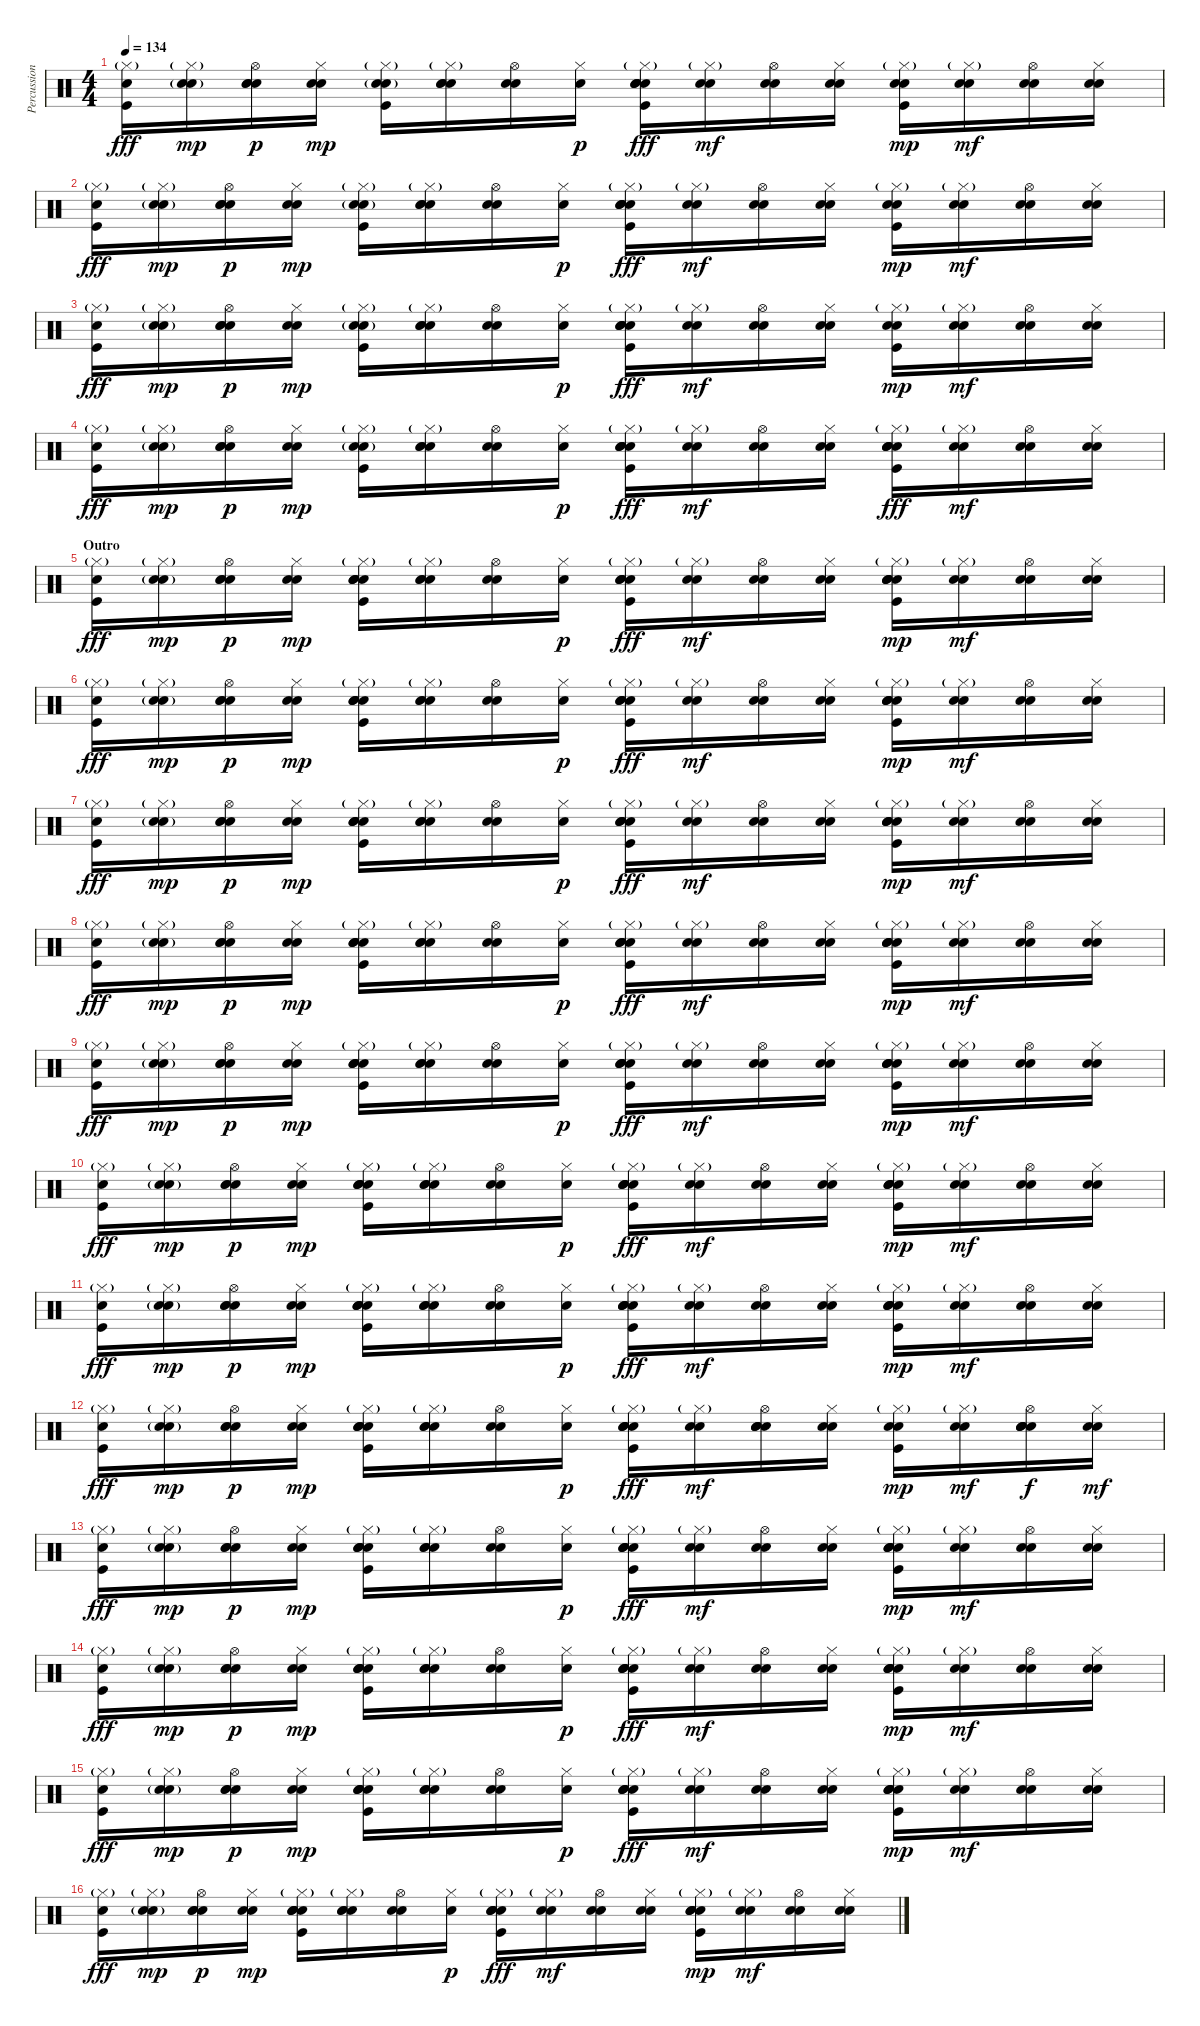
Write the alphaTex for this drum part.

\track ("Percussion" "Percussion") {instrument percussion}
\staff {score}
\articulation defaults
\ts (4 4)
\tempo 134
\clef neutral
\ks c
("Electric Snare (hit)" "Hi-Hat (closed)"{g} "Kick (hit)").16{dy fff} ("Electric Snare (hit)" "Hi-Hat (closed)"{g} "Electric Snare (hit)"{g}).16{dy mp} ("Electric Snare (hit)" "Hi-Hat (open)" "Electric Snare (hit)" "Snare (hit) 2").16{dy p} ("Electric Snare (hit)" "Hi-Hat (closed)" "Snare (hit) 2").16{dy mp} ("Electric Snare (hit)" "Hi-Hat (closed)"{g} "Electric Snare (hit)"{g} "Kick (hit)").16 ("Electric Snare (hit)" "Hi-Hat (closed)"{g} "Electric Snare (hit)" "Snare (hit) 2").16 ("Electric Snare (hit)" "Hi-Hat (open)" "Snare (hit) 2").16 ("Electric Snare (hit)" "Hi-Hat (closed)").16{dy p} ("Electric Snare (hit)" "Hi-Hat (closed)"{g} "Snare (hit) 2" "Snare (hit) 2" "Snare (hit) 2" "Kick (hit)").16{dy fff} ("Electric Snare (hit)" "Hi-Hat (closed)"{g} "Snare (hit) 2").16{dy mf} ("Electric Snare (hit)" "Hi-Hat (open)" "Snare (hit) 2").16 ("Electric Snare (hit)" "Hi-Hat (closed)" "Snare (hit) 2").16 ("Electric Snare (hit)" "Hi-Hat (closed)"{g} "Snare (hit) 2" "Kick (hit)").16{dy mp} ("Electric Snare (hit)" "Hi-Hat (closed)"{g} "Snare (hit) 2").16{dy mf} ("Electric Snare (hit)" "Hi-Hat (open)" "Snare (hit) 2").16 ("Electric Snare (hit)" "Hi-Hat (closed)" "Snare (hit) 2").16 |
("Electric Snare (hit)" "Hi-Hat (closed)"{g} "Kick (hit)").16{dy fff} ("Electric Snare (hit)" "Hi-Hat (closed)"{g} "Electric Snare (hit)"{g}).16{dy mp} ("Electric Snare (hit)" "Hi-Hat (open)" "Electric Snare (hit)" "Snare (hit) 2").16{dy p} ("Electric Snare (hit)" "Hi-Hat (closed)" "Snare (hit) 2").16{dy mp} ("Electric Snare (hit)" "Hi-Hat (closed)"{g} "Electric Snare (hit)"{g} "Kick (hit)").16 ("Electric Snare (hit)" "Hi-Hat (closed)"{g} "Electric Snare (hit)" "Snare (hit) 2").16 ("Electric Snare (hit)" "Hi-Hat (open)" "Snare (hit) 2").16 ("Electric Snare (hit)" "Hi-Hat (closed)").16{dy p} ("Electric Snare (hit)" "Hi-Hat (closed)"{g} "Snare (hit) 2" "Snare (hit) 2" "Snare (hit) 2" "Kick (hit)").16{dy fff} ("Electric Snare (hit)" "Hi-Hat (closed)"{g} "Snare (hit) 2").16{dy mf} ("Electric Snare (hit)" "Hi-Hat (open)" "Snare (hit) 2").16 ("Electric Snare (hit)" "Hi-Hat (closed)" "Snare (hit) 2").16 ("Electric Snare (hit)" "Hi-Hat (closed)"{g} "Snare (hit) 2" "Kick (hit)").16{dy mp} ("Electric Snare (hit)" "Hi-Hat (closed)"{g} "Snare (hit) 2").16{dy mf} ("Electric Snare (hit)" "Hi-Hat (open)" "Snare (hit) 2").16 ("Electric Snare (hit)" "Hi-Hat (closed)" "Snare (hit) 2").16 |
("Electric Snare (hit)" "Hi-Hat (closed)"{g} "Kick (hit)").16{dy fff} ("Electric Snare (hit)" "Hi-Hat (closed)"{g} "Electric Snare (hit)"{g}).16{dy mp} ("Electric Snare (hit)" "Hi-Hat (open)" "Electric Snare (hit)" "Snare (hit) 2").16{dy p} ("Electric Snare (hit)" "Hi-Hat (closed)" "Snare (hit) 2").16{dy mp} ("Electric Snare (hit)" "Hi-Hat (closed)"{g} "Electric Snare (hit)"{g} "Kick (hit)").16 ("Electric Snare (hit)" "Hi-Hat (closed)"{g} "Electric Snare (hit)" "Snare (hit) 2").16 ("Electric Snare (hit)" "Hi-Hat (open)" "Snare (hit) 2").16 ("Electric Snare (hit)" "Hi-Hat (closed)").16{dy p} ("Electric Snare (hit)" "Hi-Hat (closed)"{g} "Snare (hit) 2" "Snare (hit) 2" "Snare (hit) 2" "Kick (hit)").16{dy fff} ("Electric Snare (hit)" "Hi-Hat (closed)"{g} "Snare (hit) 2").16{dy mf} ("Electric Snare (hit)" "Hi-Hat (open)" "Snare (hit) 2").16 ("Electric Snare (hit)" "Hi-Hat (closed)" "Snare (hit) 2").16 ("Electric Snare (hit)" "Hi-Hat (closed)"{g} "Snare (hit) 2" "Kick (hit)").16{dy mp} ("Electric Snare (hit)" "Hi-Hat (closed)"{g} "Snare (hit) 2").16{dy mf} ("Electric Snare (hit)" "Hi-Hat (open)" "Snare (hit) 2").16 ("Electric Snare (hit)" "Hi-Hat (closed)" "Snare (hit) 2").16 |
("Electric Snare (hit)" "Hi-Hat (closed)"{g} "Kick (hit)").16{dy fff} ("Electric Snare (hit)" "Hi-Hat (closed)"{g} "Electric Snare (hit)"{g}).16{dy mp} ("Electric Snare (hit)" "Hi-Hat (open)" "Electric Snare (hit)" "Snare (hit) 2").16{dy p} ("Electric Snare (hit)" "Hi-Hat (closed)" "Snare (hit) 2").16{dy mp} ("Electric Snare (hit)" "Hi-Hat (closed)"{g} "Electric Snare (hit)"{g} "Kick (hit)").16 ("Electric Snare (hit)" "Hi-Hat (closed)"{g} "Electric Snare (hit)" "Snare (hit) 2").16 ("Electric Snare (hit)" "Hi-Hat (open)" "Snare (hit) 2").16 ("Electric Snare (hit)" "Hi-Hat (closed)").16{dy p} ("Electric Snare (hit)" "Hi-Hat (closed)"{g} "Snare (hit) 2" "Snare (hit) 2" "Snare (hit) 2" "Kick (hit)").16{dy fff} ("Electric Snare (hit)" "Hi-Hat (closed)"{g} "Snare (hit) 2").16{dy mf} ("Electric Snare (hit)" "Hi-Hat (open)" "Snare (hit) 2").16 ("Electric Snare (hit)" "Hi-Hat (closed)" "Snare (hit) 2").16 ("Hand Clap (hit)" "Hi-Hat (closed)"{g} "Hand Clap (hit)" "Hand Clap (hit)" "Hand Clap (hit)" "Kick (hit)").16{dy fff} ("Electric Snare (hit)" "Hi-Hat (closed)"{g} "Snare (hit) 2").16{dy mf} ("Electric Snare (hit)" "Hi-Hat (open)" "Snare (hit) 2").16 ("Electric Snare (hit)" "Hi-Hat (closed)" "Snare (hit) 2").16 |
\section ("" "Outro")
("Electric Snare (hit)" "Hi-Hat (closed)"{g} "Kick (hit)").16{dy fff} ("Electric Snare (hit)" "Hi-Hat (closed)"{g} "Electric Snare (hit)"{g}).16{dy mp} ("Electric Snare (hit)" "Hi-Hat (open)" "Electric Snare (hit)" "Snare (hit) 2").16{dy p} ("Electric Snare (hit)" "Hi-Hat (closed)" "Snare (hit) 2").16{dy mp} ("Electric Snare (hit)" "Hi-Hat (closed)"{g} "Hand Clap (hit)" "Hand Clap (hit)" "Hand Clap (hit)" "Kick (hit)").16 ("Electric Snare (hit)" "Hi-Hat (closed)"{g} "Electric Snare (hit)" "Snare (hit) 2").16 ("Electric Snare (hit)" "Hi-Hat (open)" "Snare (hit) 2").16 ("Electric Snare (hit)" "Hi-Hat (closed)").16{dy p} ("Electric Snare (hit)" "Hi-Hat (closed)"{g} "Snare (hit) 2" "Snare (hit) 2" "Snare (hit) 2" "Kick (hit)").16{dy fff} ("Electric Snare (hit)" "Hi-Hat (closed)"{g} "Snare (hit) 2").16{dy mf} ("Electric Snare (hit)" "Hi-Hat (open)" "Snare (hit) 2").16 ("Electric Snare (hit)" "Hi-Hat (closed)" "Snare (hit) 2").16 ("Electric Snare (hit)" "Hi-Hat (closed)"{g} "Hand Clap (hit)" "Hand Clap (hit)" "Hand Clap (hit)" "Kick (hit)").16{dy mp} ("Electric Snare (hit)" "Hi-Hat (closed)"{g} "Snare (hit) 2").16{dy mf} ("Electric Snare (hit)" "Hi-Hat (open)" "Snare (hit) 2").16 ("Electric Snare (hit)" "Hi-Hat (closed)" "Snare (hit) 2").16 |
("Electric Snare (hit)" "Hi-Hat (closed)"{g} "Kick (hit)").16{dy fff} ("Electric Snare (hit)" "Hi-Hat (closed)"{g} "Electric Snare (hit)"{g}).16{dy mp} ("Electric Snare (hit)" "Hi-Hat (open)" "Electric Snare (hit)" "Snare (hit) 2").16{dy p} ("Electric Snare (hit)" "Hi-Hat (closed)" "Snare (hit) 2").16{dy mp} ("Electric Snare (hit)" "Hi-Hat (closed)"{g} "Hand Clap (hit)" "Hand Clap (hit)" "Hand Clap (hit)" "Kick (hit)").16 ("Electric Snare (hit)" "Hi-Hat (closed)"{g} "Electric Snare (hit)" "Snare (hit) 2").16 ("Electric Snare (hit)" "Hi-Hat (open)" "Snare (hit) 2").16 ("Electric Snare (hit)" "Hi-Hat (closed)").16{dy p} ("Electric Snare (hit)" "Hi-Hat (closed)"{g} "Snare (hit) 2" "Snare (hit) 2" "Snare (hit) 2" "Kick (hit)").16{dy fff} ("Electric Snare (hit)" "Hi-Hat (closed)"{g} "Snare (hit) 2").16{dy mf} ("Electric Snare (hit)" "Hi-Hat (open)" "Snare (hit) 2").16 ("Electric Snare (hit)" "Hi-Hat (closed)" "Snare (hit) 2").16 ("Electric Snare (hit)" "Hi-Hat (closed)"{g} "Hand Clap (hit)" "Hand Clap (hit)" "Hand Clap (hit)" "Kick (hit)").16{dy mp} ("Electric Snare (hit)" "Hi-Hat (closed)"{g} "Snare (hit) 2").16{dy mf} ("Electric Snare (hit)" "Hi-Hat (open)" "Snare (hit) 2").16 ("Electric Snare (hit)" "Hi-Hat (closed)" "Snare (hit) 2").16 |
("Electric Snare (hit)" "Hi-Hat (closed)"{g} "Kick (hit)").16{dy fff} ("Electric Snare (hit)" "Hi-Hat (closed)"{g} "Electric Snare (hit)"{g}).16{dy mp} ("Electric Snare (hit)" "Hi-Hat (open)" "Electric Snare (hit)" "Snare (hit) 2").16{dy p} ("Electric Snare (hit)" "Hi-Hat (closed)" "Snare (hit) 2").16{dy mp} ("Electric Snare (hit)" "Hi-Hat (closed)"{g} "Hand Clap (hit)" "Hand Clap (hit)" "Hand Clap (hit)" "Kick (hit)").16 ("Electric Snare (hit)" "Hi-Hat (closed)"{g} "Electric Snare (hit)" "Snare (hit) 2").16 ("Electric Snare (hit)" "Hi-Hat (open)" "Snare (hit) 2").16 ("Electric Snare (hit)" "Hi-Hat (closed)").16{dy p} ("Electric Snare (hit)" "Hi-Hat (closed)"{g} "Snare (hit) 2" "Snare (hit) 2" "Snare (hit) 2" "Kick (hit)").16{dy fff} ("Electric Snare (hit)" "Hi-Hat (closed)"{g} "Snare (hit) 2").16{dy mf} ("Electric Snare (hit)" "Hi-Hat (open)" "Snare (hit) 2").16 ("Electric Snare (hit)" "Hi-Hat (closed)" "Snare (hit) 2").16 ("Electric Snare (hit)" "Hi-Hat (closed)"{g} "Hand Clap (hit)" "Hand Clap (hit)" "Hand Clap (hit)" "Kick (hit)").16{dy mp} ("Electric Snare (hit)" "Hi-Hat (closed)"{g} "Snare (hit) 2").16{dy mf} ("Electric Snare (hit)" "Hi-Hat (open)" "Snare (hit) 2").16 ("Electric Snare (hit)" "Hi-Hat (closed)" "Snare (hit) 2").16 |
("Electric Snare (hit)" "Hi-Hat (closed)"{g} "Kick (hit)").16{dy fff} ("Electric Snare (hit)" "Hi-Hat (closed)"{g} "Electric Snare (hit)"{g}).16{dy mp} ("Electric Snare (hit)" "Hi-Hat (open)" "Electric Snare (hit)" "Snare (hit) 2").16{dy p} ("Electric Snare (hit)" "Hi-Hat (closed)" "Snare (hit) 2").16{dy mp} ("Electric Snare (hit)" "Hi-Hat (closed)"{g} "Hand Clap (hit)" "Hand Clap (hit)" "Hand Clap (hit)" "Kick (hit)").16 ("Electric Snare (hit)" "Hi-Hat (closed)"{g} "Electric Snare (hit)" "Snare (hit) 2").16 ("Electric Snare (hit)" "Hi-Hat (open)" "Snare (hit) 2").16 ("Electric Snare (hit)" "Hi-Hat (closed)").16{dy p} ("Electric Snare (hit)" "Hi-Hat (closed)"{g} "Snare (hit) 2" "Snare (hit) 2" "Snare (hit) 2" "Kick (hit)").16{dy fff} ("Electric Snare (hit)" "Hi-Hat (closed)"{g} "Snare (hit) 2").16{dy mf} ("Electric Snare (hit)" "Hi-Hat (open)" "Snare (hit) 2").16 ("Electric Snare (hit)" "Hi-Hat (closed)" "Snare (hit) 2").16 ("Electric Snare (hit)" "Hi-Hat (closed)"{g} "Hand Clap (hit)" "Hand Clap (hit)" "Hand Clap (hit)" "Kick (hit)").16{dy mp} ("Electric Snare (hit)" "Hi-Hat (closed)"{g} "Snare (hit) 2").16{dy mf} ("Electric Snare (hit)" "Hi-Hat (open)" "Snare (hit) 2").16 ("Electric Snare (hit)" "Hi-Hat (closed)" "Snare (hit) 2").16 |
("Electric Snare (hit)" "Hi-Hat (closed)"{g} "Kick (hit)").16{dy fff} ("Electric Snare (hit)" "Hi-Hat (closed)"{g} "Electric Snare (hit)"{g}).16{dy mp} ("Electric Snare (hit)" "Hi-Hat (open)" "Electric Snare (hit)" "Snare (hit) 2").16{dy p} ("Electric Snare (hit)" "Hi-Hat (closed)" "Snare (hit) 2").16{dy mp} ("Electric Snare (hit)" "Hi-Hat (closed)"{g} "Hand Clap (hit)" "Hand Clap (hit)" "Hand Clap (hit)" "Kick (hit)").16 ("Electric Snare (hit)" "Hi-Hat (closed)"{g} "Electric Snare (hit)" "Snare (hit) 2").16 ("Electric Snare (hit)" "Hi-Hat (open)" "Snare (hit) 2").16 ("Electric Snare (hit)" "Hi-Hat (closed)").16{dy p} ("Electric Snare (hit)" "Hi-Hat (closed)"{g} "Snare (hit) 2" "Snare (hit) 2" "Snare (hit) 2" "Kick (hit)").16{dy fff} ("Electric Snare (hit)" "Hi-Hat (closed)"{g} "Snare (hit) 2").16{dy mf} ("Electric Snare (hit)" "Hi-Hat (open)" "Snare (hit) 2").16 ("Electric Snare (hit)" "Hi-Hat (closed)" "Snare (hit) 2").16 ("Electric Snare (hit)" "Hi-Hat (closed)"{g} "Hand Clap (hit)" "Hand Clap (hit)" "Hand Clap (hit)" "Kick (hit)").16{dy mp} ("Electric Snare (hit)" "Hi-Hat (closed)"{g} "Snare (hit) 2").16{dy mf} ("Electric Snare (hit)" "Hi-Hat (open)" "Snare (hit) 2").16 ("Electric Snare (hit)" "Hi-Hat (closed)" "Snare (hit) 2").16 |
("Electric Snare (hit)" "Hi-Hat (closed)"{g} "Kick (hit)").16{dy fff} ("Electric Snare (hit)" "Hi-Hat (closed)"{g} "Electric Snare (hit)"{g}).16{dy mp} ("Electric Snare (hit)" "Hi-Hat (open)" "Electric Snare (hit)" "Snare (hit) 2").16{dy p} ("Electric Snare (hit)" "Hi-Hat (closed)" "Snare (hit) 2").16{dy mp} ("Electric Snare (hit)" "Hi-Hat (closed)"{g} "Hand Clap (hit)" "Hand Clap (hit)" "Hand Clap (hit)" "Kick (hit)").16 ("Electric Snare (hit)" "Hi-Hat (closed)"{g} "Electric Snare (hit)" "Snare (hit) 2").16 ("Electric Snare (hit)" "Hi-Hat (open)" "Snare (hit) 2").16 ("Electric Snare (hit)" "Hi-Hat (closed)").16{dy p} ("Electric Snare (hit)" "Hi-Hat (closed)"{g} "Snare (hit) 2" "Snare (hit) 2" "Snare (hit) 2" "Kick (hit)").16{dy fff} ("Electric Snare (hit)" "Hi-Hat (closed)"{g} "Snare (hit) 2").16{dy mf} ("Electric Snare (hit)" "Hi-Hat (open)" "Snare (hit) 2").16 ("Electric Snare (hit)" "Hi-Hat (closed)" "Snare (hit) 2").16 ("Electric Snare (hit)" "Hi-Hat (closed)"{g} "Hand Clap (hit)" "Hand Clap (hit)" "Hand Clap (hit)" "Kick (hit)").16{dy mp} ("Electric Snare (hit)" "Hi-Hat (closed)"{g} "Snare (hit) 2").16{dy mf} ("Electric Snare (hit)" "Hi-Hat (open)" "Snare (hit) 2").16 ("Electric Snare (hit)" "Hi-Hat (closed)" "Snare (hit) 2").16 |
("Electric Snare (hit)" "Hi-Hat (closed)"{g} "Kick (hit)").16{dy fff} ("Electric Snare (hit)" "Hi-Hat (closed)"{g} "Electric Snare (hit)"{g}).16{dy mp} ("Electric Snare (hit)" "Hi-Hat (open)" "Electric Snare (hit)" "Snare (hit) 2").16{dy p} ("Electric Snare (hit)" "Hi-Hat (closed)" "Snare (hit) 2").16{dy mp} ("Electric Snare (hit)" "Hi-Hat (closed)"{g} "Hand Clap (hit)" "Hand Clap (hit)" "Hand Clap (hit)" "Kick (hit)").16 ("Electric Snare (hit)" "Hi-Hat (closed)"{g} "Electric Snare (hit)" "Snare (hit) 2").16 ("Electric Snare (hit)" "Hi-Hat (open)" "Snare (hit) 2").16 ("Electric Snare (hit)" "Hi-Hat (closed)").16{dy p} ("Electric Snare (hit)" "Hi-Hat (closed)"{g} "Snare (hit) 2" "Snare (hit) 2" "Snare (hit) 2" "Kick (hit)").16{dy fff} ("Electric Snare (hit)" "Hi-Hat (closed)"{g} "Snare (hit) 2").16{dy mf} ("Electric Snare (hit)" "Hi-Hat (open)" "Snare (hit) 2").16 ("Electric Snare (hit)" "Hi-Hat (closed)" "Snare (hit) 2").16 ("Electric Snare (hit)" "Hi-Hat (closed)"{g} "Hand Clap (hit)" "Hand Clap (hit)" "Hand Clap (hit)" "Kick (hit)").16{dy mp} ("Electric Snare (hit)" "Hi-Hat (closed)"{g} "Snare (hit) 2").16{dy mf} ("Electric Snare (hit)" "Hi-Hat (open)" "Snare (hit) 2").16 ("Electric Snare (hit)" "Hi-Hat (closed)" "Snare (hit) 2").16 |
("Electric Snare (hit)" "Hi-Hat (closed)"{g} "Kick (hit)").16{dy fff} ("Electric Snare (hit)" "Hi-Hat (closed)"{g} "Electric Snare (hit)"{g}).16{dy mp} ("Electric Snare (hit)" "Hi-Hat (open)" "Electric Snare (hit)" "Snare (hit) 2").16{dy p} ("Electric Snare (hit)" "Hi-Hat (closed)" "Snare (hit) 2").16{dy mp} ("Electric Snare (hit)" "Hi-Hat (closed)"{g} "Hand Clap (hit)" "Hand Clap (hit)" "Hand Clap (hit)" "Kick (hit)").16 ("Electric Snare (hit)" "Hi-Hat (closed)"{g} "Electric Snare (hit)" "Snare (hit) 2").16 ("Electric Snare (hit)" "Hi-Hat (open)" "Snare (hit) 2").16 ("Electric Snare (hit)" "Hi-Hat (closed)").16{dy p} ("Electric Snare (hit)" "Hi-Hat (closed)"{g} "Snare (hit) 2" "Snare (hit) 2" "Snare (hit) 2" "Kick (hit)").16{dy fff} ("Electric Snare (hit)" "Hi-Hat (closed)"{g} "Snare (hit) 2").16{dy mf} ("Electric Snare (hit)" "Hi-Hat (open)" "Hand Clap (hit)" "Hand Clap (hit)" "Hand Clap (hit)").16 ("Electric Snare (hit)" "Hi-Hat (closed)" "Snare (hit) 2").16 ("Electric Snare (hit)" "Hi-Hat (closed)"{g} "Snare (hit) 2" "Kick (hit)").16{dy mp} ("Electric Snare (hit)" "Hi-Hat (closed)"{g} "Snare (hit) 2").16{dy mf} ("Electric Snare (hit)" "Hi-Hat (open)" "Snare (hit) 2" "Snare (hit) 2" "Hand Clap (hit)").16{dy f} ("Electric Snare (hit)" "Hi-Hat (closed)" "Snare (hit) 2").16{dy mf} |
("Electric Snare (hit)" "Hi-Hat (closed)"{g} "Kick (hit)").16{dy fff} ("Electric Snare (hit)" "Hi-Hat (closed)"{g} "Electric Snare (hit)"{g}).16{dy mp} ("Electric Snare (hit)" "Hi-Hat (open)" "Electric Snare (hit)" "Snare (hit) 2").16{dy p} ("Electric Snare (hit)" "Hi-Hat (closed)" "Snare (hit) 2").16{dy mp} ("Electric Snare (hit)" "Hi-Hat (closed)"{g} "Hand Clap (hit)" "Hand Clap (hit)" "Hand Clap (hit)" "Kick (hit)").16 ("Electric Snare (hit)" "Hi-Hat (closed)"{g} "Electric Snare (hit)" "Snare (hit) 2").16 ("Electric Snare (hit)" "Hi-Hat (open)" "Snare (hit) 2").16 ("Electric Snare (hit)" "Hi-Hat (closed)").16{dy p} ("Electric Snare (hit)" "Hi-Hat (closed)"{g} "Snare (hit) 2" "Snare (hit) 2" "Snare (hit) 2" "Kick (hit)").16{dy fff} ("Electric Snare (hit)" "Hi-Hat (closed)"{g} "Snare (hit) 2").16{dy mf} ("Electric Snare (hit)" "Hi-Hat (open)" "Snare (hit) 2").16 ("Electric Snare (hit)" "Hi-Hat (closed)" "Snare (hit) 2").16 ("Electric Snare (hit)" "Hi-Hat (closed)"{g} "Hand Clap (hit)" "Hand Clap (hit)" "Hand Clap (hit)" "Kick (hit)").16{dy mp} ("Electric Snare (hit)" "Hi-Hat (closed)"{g} "Snare (hit) 2").16{dy mf} ("Electric Snare (hit)" "Hi-Hat (open)" "Snare (hit) 2").16 ("Electric Snare (hit)" "Hi-Hat (closed)" "Snare (hit) 2").16 |
("Electric Snare (hit)" "Hi-Hat (closed)"{g} "Kick (hit)").16{dy fff} ("Electric Snare (hit)" "Hi-Hat (closed)"{g} "Electric Snare (hit)"{g}).16{dy mp} ("Electric Snare (hit)" "Hi-Hat (open)" "Electric Snare (hit)" "Snare (hit) 2").16{dy p} ("Electric Snare (hit)" "Hi-Hat (closed)" "Snare (hit) 2").16{dy mp} ("Electric Snare (hit)" "Hi-Hat (closed)"{g} "Hand Clap (hit)" "Hand Clap (hit)" "Hand Clap (hit)" "Kick (hit)").16 ("Electric Snare (hit)" "Hi-Hat (closed)"{g} "Electric Snare (hit)" "Snare (hit) 2").16 ("Electric Snare (hit)" "Hi-Hat (open)" "Snare (hit) 2").16 ("Electric Snare (hit)" "Hi-Hat (closed)").16{dy p} ("Electric Snare (hit)" "Hi-Hat (closed)"{g} "Snare (hit) 2" "Snare (hit) 2" "Snare (hit) 2" "Kick (hit)").16{dy fff} ("Electric Snare (hit)" "Hi-Hat (closed)"{g} "Snare (hit) 2").16{dy mf} ("Electric Snare (hit)" "Hi-Hat (open)" "Snare (hit) 2").16 ("Electric Snare (hit)" "Hi-Hat (closed)" "Snare (hit) 2").16 ("Electric Snare (hit)" "Hi-Hat (closed)"{g} "Hand Clap (hit)" "Hand Clap (hit)" "Hand Clap (hit)" "Kick (hit)").16{dy mp} ("Electric Snare (hit)" "Hi-Hat (closed)"{g} "Snare (hit) 2").16{dy mf} ("Electric Snare (hit)" "Hi-Hat (open)" "Snare (hit) 2").16 ("Electric Snare (hit)" "Hi-Hat (closed)" "Snare (hit) 2").16 |
("Electric Snare (hit)" "Hi-Hat (closed)"{g} "Kick (hit)").16{dy fff} ("Electric Snare (hit)" "Hi-Hat (closed)"{g} "Electric Snare (hit)"{g}).16{dy mp} ("Electric Snare (hit)" "Hi-Hat (open)" "Electric Snare (hit)" "Snare (hit) 2").16{dy p} ("Electric Snare (hit)" "Hi-Hat (closed)" "Snare (hit) 2").16{dy mp} ("Electric Snare (hit)" "Hi-Hat (closed)"{g} "Hand Clap (hit)" "Hand Clap (hit)" "Hand Clap (hit)" "Kick (hit)").16 ("Electric Snare (hit)" "Hi-Hat (closed)"{g} "Electric Snare (hit)" "Snare (hit) 2").16 ("Electric Snare (hit)" "Hi-Hat (open)" "Snare (hit) 2").16 ("Electric Snare (hit)" "Hi-Hat (closed)").16{dy p} ("Electric Snare (hit)" "Hi-Hat (closed)"{g} "Snare (hit) 2" "Snare (hit) 2" "Snare (hit) 2" "Kick (hit)").16{dy fff} ("Electric Snare (hit)" "Hi-Hat (closed)"{g} "Snare (hit) 2").16{dy mf} ("Electric Snare (hit)" "Hi-Hat (open)" "Snare (hit) 2").16 ("Electric Snare (hit)" "Hi-Hat (closed)" "Snare (hit) 2").16 ("Electric Snare (hit)" "Hi-Hat (closed)"{g} "Hand Clap (hit)" "Hand Clap (hit)" "Hand Clap (hit)" "Kick (hit)").16{dy mp} ("Electric Snare (hit)" "Hi-Hat (closed)"{g} "Snare (hit) 2").16{dy mf} ("Electric Snare (hit)" "Hi-Hat (open)" "Snare (hit) 2").16 ("Electric Snare (hit)" "Hi-Hat (closed)" "Snare (hit) 2").16 |
("Electric Snare (hit)" "Hi-Hat (closed)"{g} "Kick (hit)").16{dy fff} ("Electric Snare (hit)" "Hi-Hat (closed)"{g} "Electric Snare (hit)"{g}).16{dy mp} ("Electric Snare (hit)" "Hi-Hat (open)" "Electric Snare (hit)" "Snare (hit) 2").16{dy p} ("Electric Snare (hit)" "Hi-Hat (closed)" "Snare (hit) 2").16{dy mp} ("Electric Snare (hit)" "Hi-Hat (closed)"{g} "Hand Clap (hit)" "Hand Clap (hit)" "Hand Clap (hit)" "Kick (hit)").16 ("Electric Snare (hit)" "Hi-Hat (closed)"{g} "Electric Snare (hit)" "Snare (hit) 2").16 ("Electric Snare (hit)" "Hi-Hat (open)" "Snare (hit) 2").16 ("Electric Snare (hit)" "Hi-Hat (closed)").16{dy p} ("Electric Snare (hit)" "Hi-Hat (closed)"{g} "Snare (hit) 2" "Snare (hit) 2" "Snare (hit) 2" "Kick (hit)").16{dy fff} ("Electric Snare (hit)" "Hi-Hat (closed)"{g} "Snare (hit) 2").16{dy mf} ("Electric Snare (hit)" "Hi-Hat (open)" "Snare (hit) 2").16 ("Electric Snare (hit)" "Hi-Hat (closed)" "Snare (hit) 2").16 ("Electric Snare (hit)" "Hi-Hat (closed)"{g} "Hand Clap (hit)" "Hand Clap (hit)" "Hand Clap (hit)" "Kick (hit)").16{dy mp} ("Electric Snare (hit)" "Hi-Hat (closed)"{g} "Snare (hit) 2").16{dy mf} ("Electric Snare (hit)" "Hi-Hat (open)" "Snare (hit) 2").16 ("Electric Snare (hit)" "Hi-Hat (closed)" "Snare (hit) 2").16
